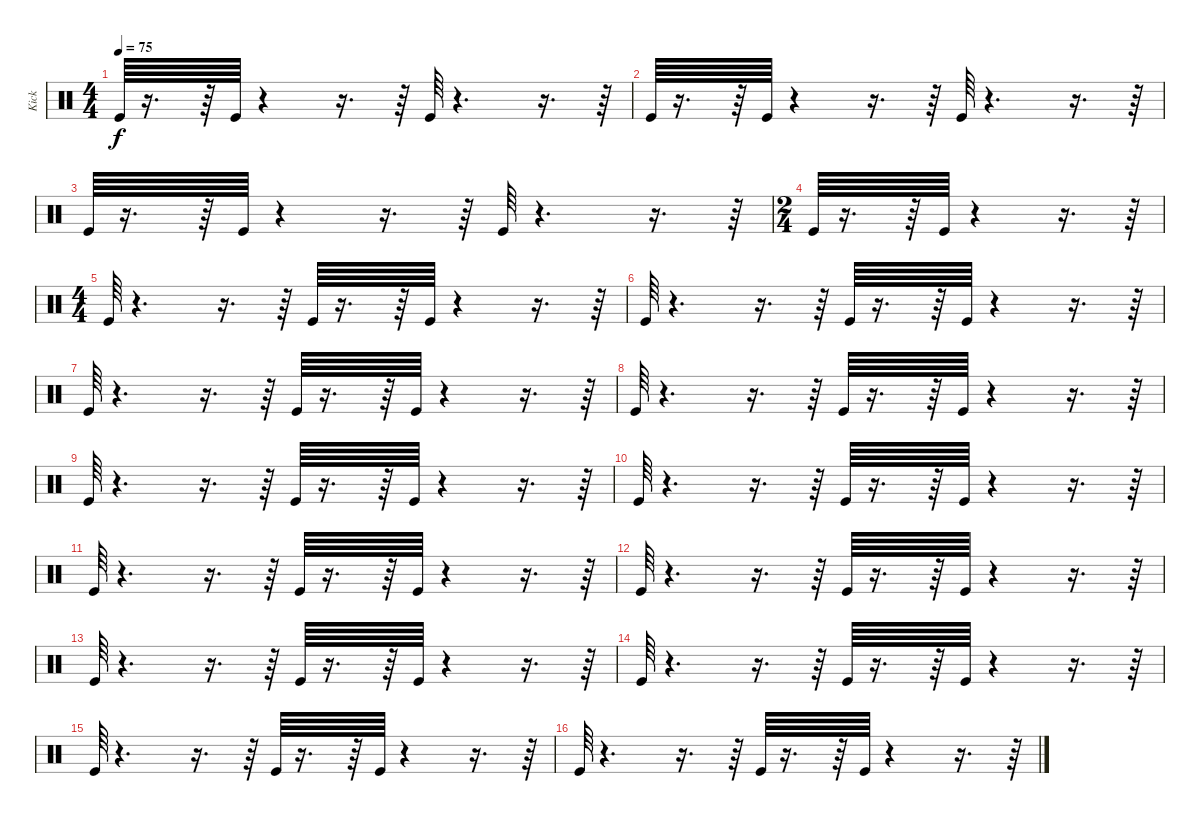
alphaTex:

\track ("Kick" "Kick") {instrument percussion}
\staff {score}
\articulation defaults
\ts (4 4)
\tempo 75
\clef neutral
\ks c "Kick (hit)".64{dy f}
r.16{d} r.64 "Kick (hit)".64 r.4 r.16{d} r.64 "Kick (hit)".64 r.4{d} r.16{d} r.64 |
"Kick (hit)".64 r.16{d} r.64 "Kick (hit)".64 r.4 r.16{d} r.64 "Kick (hit)".64 r.4{d} r.16{d} r.64 |
"Kick (hit)".64 r.16{d} r.64 "Kick (hit)".64 r.4 r.16{d} r.64 "Kick (hit)".64 r.4{d} r.16{d} r.64 |
\ts (2 4)
"Kick (hit)".64 r.16{d} r.64 "Kick (hit)".64 r.4 r.16{d} r.64 |
\ts (4 4)
"Kick (hit)".64 r.4{d} r.16{d} r.64 "Kick (hit)".64 r.16{d} r.64 "Kick (hit)".64 r.4 r.16{d} r.64 |
"Kick (hit)".64 r.4{d} r.16{d} r.64 "Kick (hit)".64 r.16{d} r.64 "Kick (hit)".64 r.4 r.16{d} r.64 |
"Kick (hit)".64 r.4{d} r.16{d} r.64 "Kick (hit)".64 r.16{d} r.64 "Kick (hit)".64 r.4 r.16{d} r.64 |
"Kick (hit)".64 r.4{d} r.16{d} r.64 "Kick (hit)".64 r.16{d} r.64 "Kick (hit)".64 r.4 r.16{d} r.64 |
"Kick (hit)".64 r.4{d} r.16{d} r.64 "Kick (hit)".64 r.16{d} r.64 "Kick (hit)".64 r.4 r.16{d} r.64 |
"Kick (hit)".64 r.4{d} r.16{d} r.64 "Kick (hit)".64 r.16{d} r.64 "Kick (hit)".64 r.4 r.16{d} r.64 |
"Kick (hit)".64 r.4{d} r.16{d} r.64 "Kick (hit)".64 r.16{d} r.64 "Kick (hit)".64 r.4 r.16{d} r.64 |
"Kick (hit)".64 r.4{d} r.16{d} r.64 "Kick (hit)".64 r.16{d} r.64 "Kick (hit)".64 r.4 r.16{d} r.64 |
"Kick (hit)".64 r.4{d} r.16{d} r.64 "Kick (hit)".64 r.16{d} r.64 "Kick (hit)".64 r.4 r.16{d} r.64 |
"Kick (hit)".64 r.4{d} r.16{d} r.64 "Kick (hit)".64 r.16{d} r.64 "Kick (hit)".64 r.4 r.16{d} r.64 |
"Kick (hit)".64 r.4{d} r.16{d} r.64 "Kick (hit)".64 r.16{d} r.64 "Kick (hit)".64 r.4 r.16{d} r.64 |
"Kick (hit)".64 r.4{d} r.16{d} r.64 "Kick (hit)".64 r.16{d} r.64 "Kick (hit)".64 r.4 r.16{d} r.64
